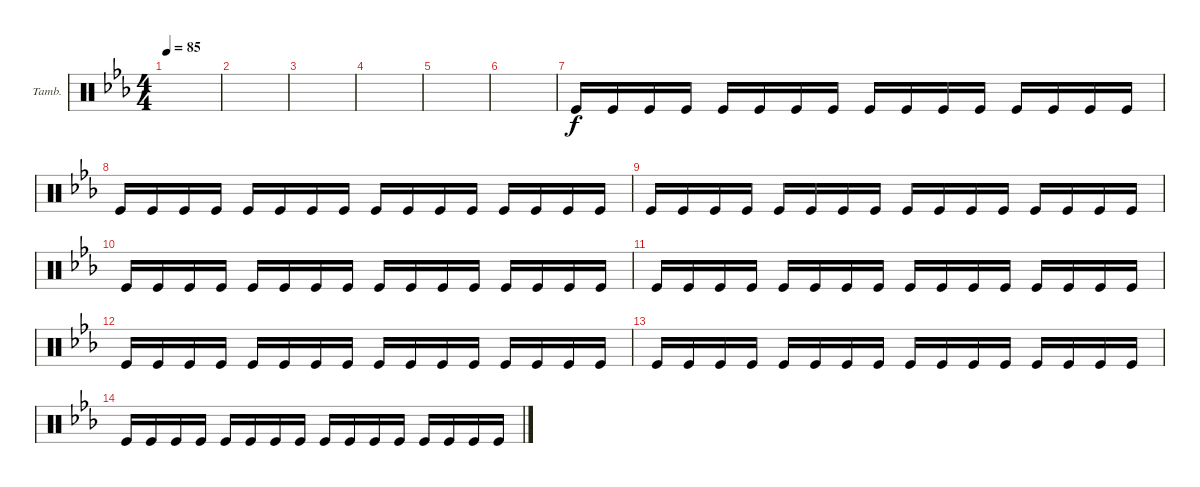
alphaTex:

\defaultSystemsLayout 4
\bracketExtendMode groupsimilarinstruments
\firstSystemTrackNameOrientation horizontal
\otherSystemsTrackNameOrientation horizontal
\track ("Tambourine" "Tamb.") {instrument percussion}
\staff {score}
\articulation defaults
\ts (4 4)
\tempo 85
\clef neutral
\ks eb
|
|
|
|
|
|
"Kick (hit)".16 "Kick (hit)".16 "Kick (hit)".16 "Kick (hit)".16 "Kick (hit)".16 "Kick (hit)".16 "Kick (hit)".16 "Kick (hit)".16 "Kick (hit)".16 "Kick (hit)".16 "Kick (hit)".16 "Kick (hit)".16 "Kick (hit)".16 "Kick (hit)".16 "Kick (hit)".16 "Kick (hit)".16 |
"Kick (hit)".16 "Kick (hit)".16 "Kick (hit)".16 "Kick (hit)".16 "Kick (hit)".16 "Kick (hit)".16 "Kick (hit)".16 "Kick (hit)".16 "Kick (hit)".16 "Kick (hit)".16 "Kick (hit)".16 "Kick (hit)".16 "Kick (hit)".16 "Kick (hit)".16 "Kick (hit)".16 "Kick (hit)".16 |
"Kick (hit)".16 "Kick (hit)".16 "Kick (hit)".16 "Kick (hit)".16 "Kick (hit)".16 "Kick (hit)".16 "Kick (hit)".16 "Kick (hit)".16 "Kick (hit)".16 "Kick (hit)".16 "Kick (hit)".16 "Kick (hit)".16 "Kick (hit)".16 "Kick (hit)".16 "Kick (hit)".16 "Kick (hit)".16 |
"Kick (hit)".16 "Kick (hit)".16 "Kick (hit)".16 "Kick (hit)".16 "Kick (hit)".16 "Kick (hit)".16 "Kick (hit)".16 "Kick (hit)".16 "Kick (hit)".16 "Kick (hit)".16 "Kick (hit)".16 "Kick (hit)".16 "Kick (hit)".16 "Kick (hit)".16 "Kick (hit)".16 "Kick (hit)".16 |
"Kick (hit)".16 "Kick (hit)".16 "Kick (hit)".16 "Kick (hit)".16 "Kick (hit)".16 "Kick (hit)".16 "Kick (hit)".16 "Kick (hit)".16 "Kick (hit)".16 "Kick (hit)".16 "Kick (hit)".16 "Kick (hit)".16 "Kick (hit)".16 "Kick (hit)".16 "Kick (hit)".16 "Kick (hit)".16 |
"Kick (hit)".16 "Kick (hit)".16 "Kick (hit)".16 "Kick (hit)".16 "Kick (hit)".16 "Kick (hit)".16 "Kick (hit)".16 "Kick (hit)".16 "Kick (hit)".16 "Kick (hit)".16 "Kick (hit)".16 "Kick (hit)".16 "Kick (hit)".16 "Kick (hit)".16 "Kick (hit)".16 "Kick (hit)".16 |
"Kick (hit)".16 "Kick (hit)".16 "Kick (hit)".16 "Kick (hit)".16 "Kick (hit)".16 "Kick (hit)".16 "Kick (hit)".16 "Kick (hit)".16 "Kick (hit)".16 "Kick (hit)".16 "Kick (hit)".16 "Kick (hit)".16 "Kick (hit)".16 "Kick (hit)".16 "Kick (hit)".16 "Kick (hit)".16 |
"Kick (hit)".16 "Kick (hit)".16 "Kick (hit)".16 "Kick (hit)".16 "Kick (hit)".16 "Kick (hit)".16 "Kick (hit)".16 "Kick (hit)".16 "Kick (hit)".16 "Kick (hit)".16 "Kick (hit)".16 "Kick (hit)".16 "Kick (hit)".16 "Kick (hit)".16 "Kick (hit)".16 "Kick (hit)".16
